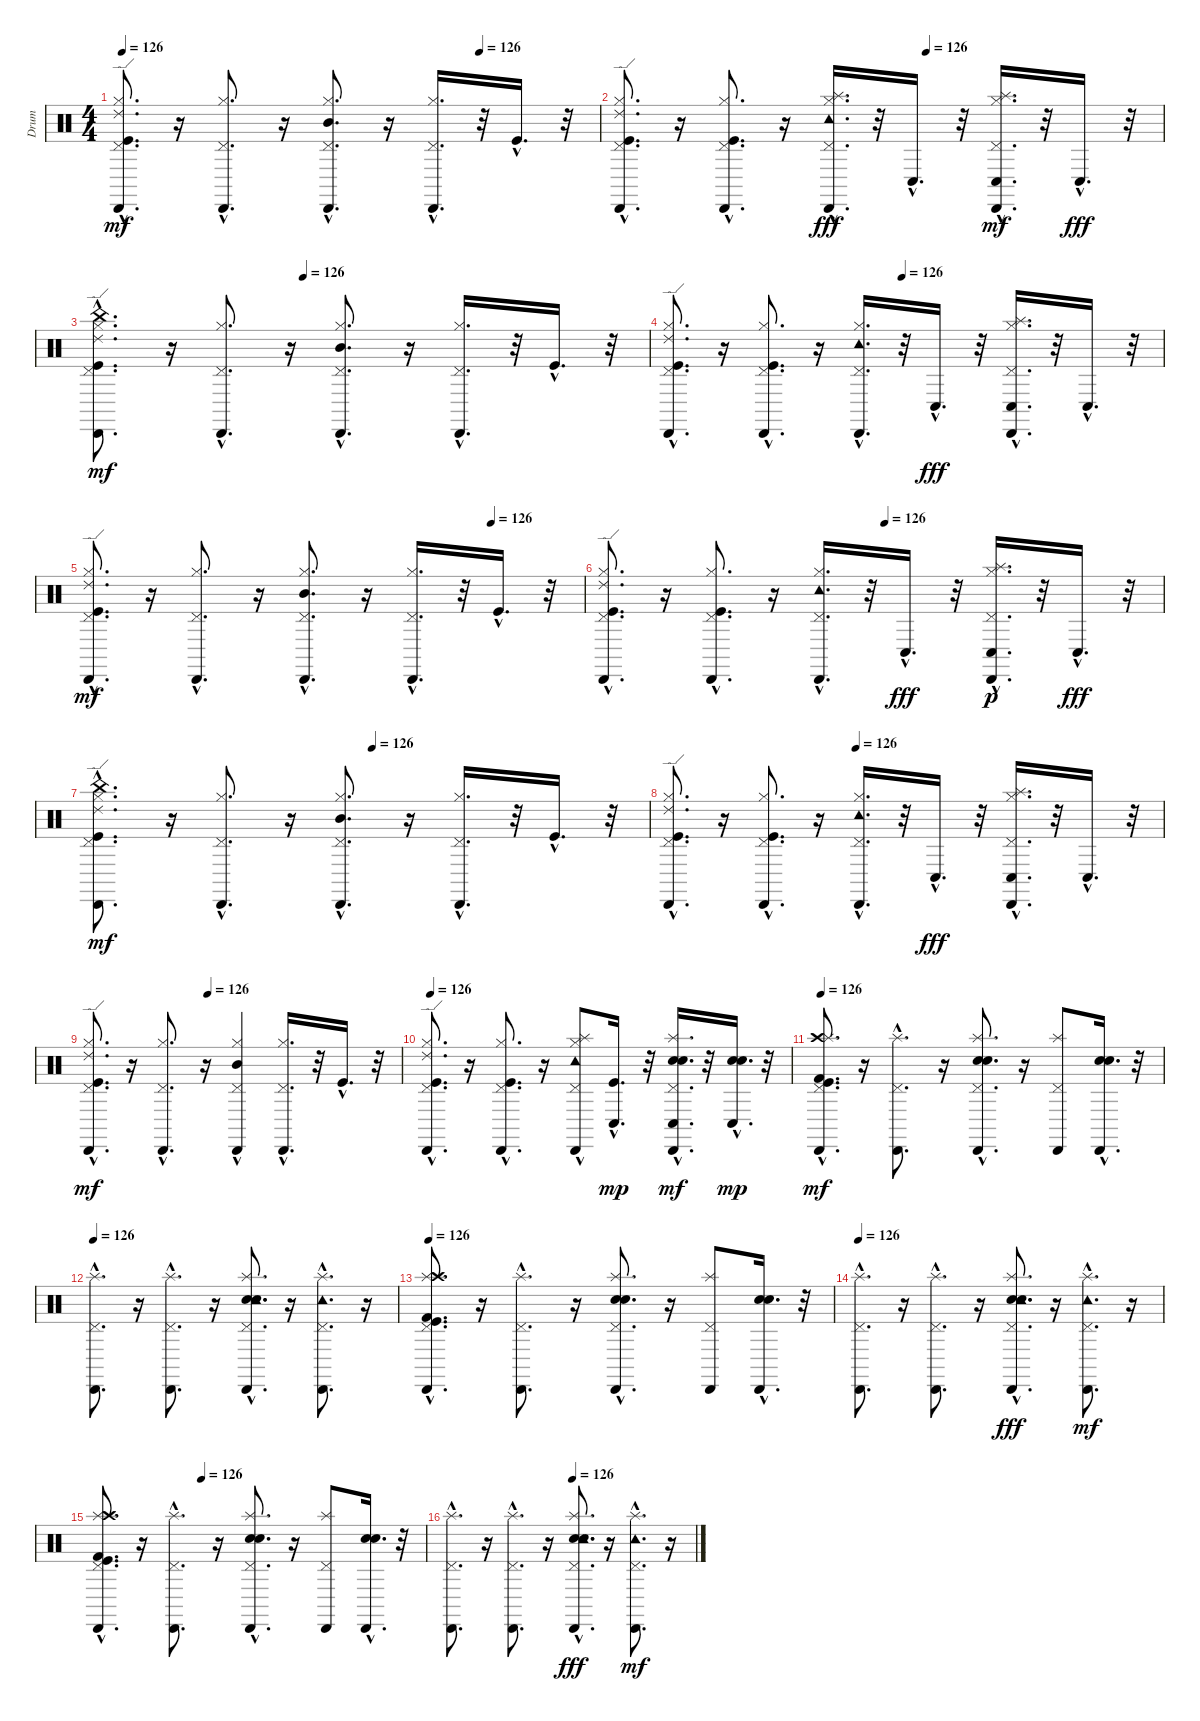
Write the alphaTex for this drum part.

\track ("Drum" "Drum") {instrument percussion}
\staff {score}
\articulation defaults
\ts (4 4)
\tempo 126
\tempo (126 0.75)
\clef neutral
\ks c
("Pedal Hi-Hat (hit)"{hac} "Kick (hit)"{hac} "Hi-Hat (closed)"{hac} "Cabasa (hit)"{hac} "Ride (edge) 2"{hac}).8{d dy mf} r.16 ("Pedal Hi-Hat (hit)"{hac} "Hi-Hat (closed)"{hac} "Cabasa (hit)"{hac}).8{d} r.16 ("Mid Tom (hit)"{hac} "Pedal Hi-Hat (hit)"{hac} "Hi-Hat (closed)"{hac} "Cabasa (hit)"{hac}).8{d} r.16 ("Cabasa (hit)"{hac} "Pedal Hi-Hat (hit)"{hac} "Hi-Hat (closed)"{hac}).16{d} r.32 "Kick (hit)"{hac}.16{d} r.32 |
\tempo (126 0.5625)
("Pedal Hi-Hat (hit)"{hac} "Kick (hit)"{hac} "Hi-Hat (closed)"{hac} "Cabasa (hit)"{hac} "Ride (edge) 2"{hac}).8{d} r.16 ("Pedal Hi-Hat (hit)"{hac} "Kick (hit)"{hac} "Hi-Hat (closed)"{hac} "Cabasa (hit)"{hac}).8{d} r.16 ("Cabasa (hit)"{hac} "Pedal Hi-Hat (hit)"{hac} "Hi-Hat (closed)"{hac} "Tambourine (hit)"{hac} "Splash (hit)"{hac}).16{d dy fff} r.32 "Conga low (hit)"{hac}.16{d} r.32 ("Splash (hit)"{hac} "Conga low (hit)"{hac} "Pedal Hi-Hat (hit)"{hac} "Hi-Hat (closed)"{hac} "Cabasa (hit)"{hac}).16{d dy mf} r.32 "Conga low (hit)"{hac}.16{d dy fff} r.32 |
\tempo (126 0.375)
("Kick (hit)"{hac} "China (hit)"{hac} "Ride (edge) 2"{hac} "Cabasa (hit)"{hac} "Pedal Hi-Hat (hit)"{hac} "Hi-Hat (closed)"{hac}).8{d dy mf} r.16 ("Pedal Hi-Hat (hit)"{hac} "Hi-Hat (closed)"{hac} "Cabasa (hit)"{hac}).8{d} r.16 ("Pedal Hi-Hat (hit)"{hac} "Mid Tom (hit)"{hac} "Cabasa (hit)"{hac} "Hi-Hat (closed)"{hac}).8{d} r.16 ("Pedal Hi-Hat (hit)"{hac} "Hi-Hat (closed)"{hac} "Cabasa (hit)"{hac}).16{d} r.32 "Kick (hit)"{hac}.16{d} r.32 |
\tempo (126 0.46875)
("Ride (edge) 2"{hac} "Cabasa (hit)"{hac} "Hi-Hat (closed)"{hac} "Kick (hit)"{hac} "Pedal Hi-Hat (hit)"{hac}).8{d} r.16 ("Cabasa (hit)"{hac} "Hi-Hat (closed)"{hac} "Kick (hit)"{hac} "Pedal Hi-Hat (hit)"{hac}).8{d} r.16 ("Hi-Hat (closed)"{hac} "Pedal Hi-Hat (hit)"{hac} "Cabasa (hit)"{hac} "Tambourine (hit)"{hac}).16{d} r.32 "Conga low (hit)"{hac}.16{d dy fff} r.32 ("Splash (hit)"{hac} "Cabasa (hit)"{hac} "Hi-Hat (closed)"{hac} "Pedal Hi-Hat (hit)"{hac} "Conga low (hit)"{hac}).16{d} r.32 "Conga low (hit)"{hac}.16{d} r.32 |
\tempo (126 0.8125)
("Cabasa (hit)"{hac} "Ride (edge) 2"{hac} "Hi-Hat (closed)"{hac} "Kick (hit)"{hac} "Pedal Hi-Hat (hit)"{hac}).8{d dy mf} r.16 ("Pedal Hi-Hat (hit)"{hac} "Hi-Hat (closed)"{hac} "Cabasa (hit)"{hac}).8{d} r.16 ("Mid Tom (hit)"{hac} "Hi-Hat (closed)"{hac} "Cabasa (hit)"{hac} "Pedal Hi-Hat (hit)"{hac}).8{d} r.16 ("Pedal Hi-Hat (hit)"{hac} "Hi-Hat (closed)"{hac} "Cabasa (hit)"{hac}).16{d} r.32 "Kick (hit)"{hac}.16{d} r.32 |
\tempo (126 0.5)
("Ride (edge) 2"{hac} "Hi-Hat (closed)"{hac} "Pedal Hi-Hat (hit)"{hac} "Kick (hit)"{hac} "Cabasa (hit)"{hac}).8{d} r.16 ("Kick (hit)"{hac} "Pedal Hi-Hat (hit)"{hac} "Hi-Hat (closed)"{hac} "Cabasa (hit)"{hac}).8{d} r.16 ("Tambourine (hit)"{hac} "Pedal Hi-Hat (hit)"{hac} "Hi-Hat (closed)"{hac} "Cabasa (hit)"{hac}).16{d} r.32 "Conga low (hit)"{hac}.16{d dy fff} r.32 ("Pedal Hi-Hat (hit)"{hac} "Conga low (hit)"{hac} "Hi-Hat (closed)"{hac} "Cabasa (hit)"{hac} "Splash (hit)"{hac}).16{d dy p} r.32 "Conga low (hit)"{hac}.16{d dy fff} r.32 |
\tempo (126 0.5)
("Kick (hit)"{hac} "China (hit)"{hac} "Pedal Hi-Hat (hit)"{hac} "Hi-Hat (closed)"{hac} "Cabasa (hit)"{hac} "Ride (edge) 2"{hac}).8{d dy mf} r.16 ("Pedal Hi-Hat (hit)"{hac} "Hi-Hat (closed)"{hac} "Cabasa (hit)"{hac}).8{d} r.16 ("Pedal Hi-Hat (hit)"{hac} "Mid Tom (hit)"{hac} "Hi-Hat (closed)"{hac} "Cabasa (hit)"{hac}).8{d} r.16 ("Pedal Hi-Hat (hit)"{hac} "Hi-Hat (closed)"{hac} "Cabasa (hit)"{hac}).16{d} r.32 "Kick (hit)"{hac}.16{d} r.32 |
\tempo (126 0.375)
("Ride (edge) 2"{hac} "Cabasa (hit)"{hac} "Hi-Hat (closed)"{hac} "Kick (hit)"{hac} "Pedal Hi-Hat (hit)"{hac}).8{d} r.16 ("Cabasa (hit)"{hac} "Hi-Hat (closed)"{hac} "Kick (hit)"{hac} "Pedal Hi-Hat (hit)"{hac}).8{d} r.16 ("Hi-Hat (closed)"{hac} "Pedal Hi-Hat (hit)"{hac} "Cabasa (hit)"{hac} "Tambourine (hit)"{hac}).16{d} r.32 "Conga low (hit)"{hac}.16{d dy fff} r.32 ("Splash (hit)"{hac} "Cabasa (hit)"{hac} "Hi-Hat (closed)"{hac} "Pedal Hi-Hat (hit)"{hac} "Conga low (hit)"{hac}).16{d} r.32 "Conga low (hit)"{hac}.16{d} r.32 |
\tempo (126 0.375)
("Pedal Hi-Hat (hit)"{hac} "Kick (hit)"{hac} "Hi-Hat (closed)"{hac} "Cabasa (hit)"{hac} "Ride (edge) 2"{hac}).8{d dy mf} r.16 ("Pedal Hi-Hat (hit)"{hac} "Hi-Hat (closed)"{hac} "Cabasa (hit)"{hac}).8{d} r.16 ("Mid Tom (hit)" "Pedal Hi-Hat (hit)"{hac} "Hi-Hat (closed)"{hac} "Cabasa (hit)"{hac}).4 ("Pedal Hi-Hat (hit)"{hac} "Hi-Hat (closed)"{hac} "Cabasa (hit)"{hac}).16{d} r.32 "Kick (hit)"{hac}.16{d} r.32 |
\tempo 126
("Ride (edge) 2"{hac} "Cabasa (hit)"{hac} "Hi-Hat (closed)"{hac} "Kick (hit)"{hac} "Pedal Hi-Hat (hit)"{hac}).8{d} r.16 ("Pedal Hi-Hat (hit)"{hac} "Kick (hit)"{hac} "Cabasa (hit)"{hac} "Hi-Hat (closed)"{hac}).8{d} r.16 ("Cabasa (hit)"{hac} "Pedal Hi-Hat (hit)"{hac} "Splash (hit)"{hac} "Tambourine (hit)"{hac} "Hi-Hat (closed)").8 ("Conga low (hit)"{hac} "Kick (hit)"{hac}).16{d dy mp} r.32 ("Electric Snare (hit)"{hac} "Splash (hit)"{hac} "Conga low (hit)"{hac} "Pedal Hi-Hat (hit)"{hac} "Snare (hit) 2"{hac} "Cabasa (hit)"{hac}).16{d dy mf} r.32 ("Conga low (hit)"{hac} "Snare (hit) 2"{hac} "Electric Snare (hit)"{hac}).16{d dy mp} r.32 |
\tempo 126
("Pedal Hi-Hat (hit)"{hac} "Crash high (hit)"{hac} "Kick (hit) 2"{hac} "Cabasa (hit)"{hac} "Kick (hit)"{hac} "Splash (hit)"{hac}).8{d dy mf} r.16 ("Cabasa (hit)"{hac} "Pedal Hi-Hat (hit)"{hac} "Splash (hit)"{hac}).8{d} r.16 ("Cabasa (hit)"{hac} "Electric Snare (hit)"{hac} "Snare (hit) 2"{hac} "Splash (hit)"{hac} "Pedal Hi-Hat (hit)"{hac}).8{d} r.16 ("Splash (hit)" "Pedal Hi-Hat (hit)" "Cabasa (hit)").8 ("Electric Snare (hit)"{hac} "Cabasa (hit)"{hac} "Snare (hit) 2"{hac}).16{d} r.32 |
\tempo 126
("Splash (hit)"{hac} "Cabasa (hit)"{hac} "Pedal Hi-Hat (hit)"{hac}).8{d} r.16 ("Splash (hit)"{hac} "Cabasa (hit)"{hac} "Pedal Hi-Hat (hit)"{hac}).8{d} r.16 ("Electric Snare (hit)"{hac} "Snare (hit) 2"{hac} "Splash (hit)"{hac} "Tambourine (hit)"{hac} "Pedal Hi-Hat (hit)"{hac} "Cabasa (hit)"{hac}).8{d} r.16 ("Splash (hit)"{hac} "Cabasa (hit)"{hac} "Tambourine (hit)"{hac} "Pedal Hi-Hat (hit)"{hac}).8{d} r.16 |
\tempo 126
("Splash (hit)"{hac} "Cabasa (hit)"{hac} "Kick (hit)"{hac} "Pedal Hi-Hat (hit)"{hac} "Crash high (hit)"{hac} "Kick (hit) 2"{hac}).8{d} r.16 ("Splash (hit)"{hac} "Pedal Hi-Hat (hit)"{hac} "Cabasa (hit)"{hac}).8{d} r.16 ("Splash (hit)"{hac} "Electric Snare (hit)"{hac} "Pedal Hi-Hat (hit)"{hac} "Snare (hit) 2"{hac} "Cabasa (hit)"{hac}).8{d} r.16 ("Splash (hit)" "Pedal Hi-Hat (hit)" "Cabasa (hit)").8 ("Snare (hit) 2"{hac} "Cabasa (hit)"{hac} "Electric Snare (hit)"{hac}).16{d} r.32 |
\tempo 126
("Splash (hit)"{hac} "Cabasa (hit)"{hac} "Pedal Hi-Hat (hit)"{hac}).8{d} r.16 ("Splash (hit)"{hac} "Cabasa (hit)"{hac} "Pedal Hi-Hat (hit)"{hac}).8{d} r.16 ("Snare (hit) 2"{hac} "Electric Snare (hit)"{hac} "Splash (hit)"{hac} "Cabasa (hit)"{hac} "Pedal Hi-Hat (hit)"{hac} "Tambourine (hit)"{hac}).8{d dy fff} r.16 ("Splash (hit)"{hac} "Cabasa (hit)"{hac} "Tambourine (hit)"{hac} "Pedal Hi-Hat (hit)"{hac}).8{d dy mf} r.16 |
\tempo (126 0.3125)
("Splash (hit)"{hac} "Kick (hit) 2"{hac} "Cabasa (hit)"{hac} "Crash high (hit)"{hac} "Pedal Hi-Hat (hit)"{hac} "Kick (hit)"{hac}).8{d} r.16 ("Splash (hit)"{hac} "Cabasa (hit)"{hac} "Pedal Hi-Hat (hit)"{hac}).8{d} r.16 ("Splash (hit)"{hac} "Electric Snare (hit)"{hac} "Cabasa (hit)"{hac} "Snare (hit) 2"{hac} "Pedal Hi-Hat (hit)"{hac}).8{d} r.16 ("Splash (hit)" "Cabasa (hit)" "Pedal Hi-Hat (hit)").8 ("Electric Snare (hit)"{hac} "Cabasa (hit)"{hac} "Snare (hit) 2"{hac}).16{d} r.32 |
\tempo (126 0.5)
("Splash (hit)"{hac} "Cabasa (hit)"{hac} "Pedal Hi-Hat (hit)"{hac}).8{d} r.16 ("Splash (hit)"{hac} "Cabasa (hit)"{hac} "Pedal Hi-Hat (hit)"{hac}).8{d} r.16 ("Electric Snare (hit)"{hac} "Snare (hit) 2"{hac} "Splash (hit)"{hac} "Cabasa (hit)"{hac} "Pedal Hi-Hat (hit)"{hac} "Tambourine (hit)"{hac}).8{d dy fff} r.16 ("Splash (hit)"{hac} "Cabasa (hit)"{hac} "Tambourine (hit)"{hac} "Pedal Hi-Hat (hit)"{hac}).8{d dy mf} r.16
